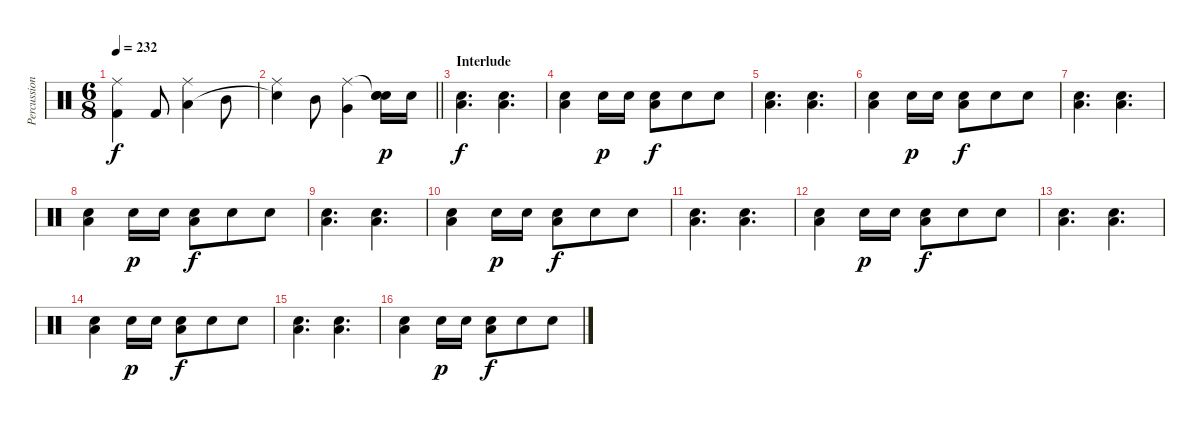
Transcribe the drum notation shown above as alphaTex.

\track ("Percussion" "Percussion") {instrument percussion}
\staff {score}
\articulation defaults
\ts (6 8)
\tempo 232
\clef neutral
\ks c
("Ride (middle)" "Kick (hit) 2").4{dy f} "Kick (hit) 2".8 ("Ride (middle)" "Low Tom (hit)").4 "Mid Tom (hit)".8 |
\barLineRight lightlight
("Ride (middle)" "Snare (hit)"{t}).4 "Mid Tom (hit)".8 ("Ride (middle)" "Very Low Tom (hit)").4 ("Snare (hit)"{t} "Snare (hit) 2" "Snare (hit)").16{dy p} "Snare (hit) 2".16 |
\section ("" "Interlude")
("Electric Snare (hit)" "Low Floor Tom (hit)").4{d dy f volume 11} ("Electric Snare (hit)" "Low Floor Tom (hit)").4{d} |
("Electric Snare (hit)" "Low Floor Tom (hit)").4 "Snare (hit) 2".16{dy p} "Snare (hit) 2".16 ("Electric Snare (hit)" "Low Floor Tom (hit)").8{dy f} "Electric Snare (hit)".8 "Electric Snare (hit)".8 |
("Electric Snare (hit)" "Low Floor Tom (hit)").4{d} ("Electric Snare (hit)" "Low Floor Tom (hit)").4{d} |
("Electric Snare (hit)" "Low Floor Tom (hit)").4 "Snare (hit) 2".16{dy p} "Snare (hit) 2".16 ("Electric Snare (hit)" "Low Floor Tom (hit)").8{dy f} "Electric Snare (hit)".8 "Electric Snare (hit)".8 |
("Electric Snare (hit)" "Low Floor Tom (hit)").4{d} ("Electric Snare (hit)" "Low Floor Tom (hit)").4{d} |
("Electric Snare (hit)" "Low Floor Tom (hit)").4 "Snare (hit) 2".16{dy p} "Snare (hit) 2".16 ("Electric Snare (hit)" "Low Floor Tom (hit)").8{dy f} "Electric Snare (hit)".8 "Electric Snare (hit)".8 |
("Electric Snare (hit)" "Low Floor Tom (hit)").4{d} ("Electric Snare (hit)" "Low Floor Tom (hit)").4{d} |
("Electric Snare (hit)" "Low Floor Tom (hit)").4 "Snare (hit) 2".16{dy p} "Snare (hit) 2".16 ("Electric Snare (hit)" "Low Floor Tom (hit)").8{dy f} "Electric Snare (hit)".8 "Electric Snare (hit)".8 |
("Electric Snare (hit)" "Low Floor Tom (hit)").4{d} ("Electric Snare (hit)" "Low Floor Tom (hit)").4{d} |
("Electric Snare (hit)" "Low Floor Tom (hit)").4 "Snare (hit) 2".16{dy p} "Snare (hit) 2".16 ("Electric Snare (hit)" "Low Floor Tom (hit)").8{dy f} "Electric Snare (hit)".8 "Electric Snare (hit)".8 |
("Electric Snare (hit)" "Low Floor Tom (hit)").4{d} ("Electric Snare (hit)" "Low Floor Tom (hit)").4{d} |
("Electric Snare (hit)" "Low Floor Tom (hit)").4 "Snare (hit) 2".16{dy p} "Snare (hit) 2".16 ("Electric Snare (hit)" "Low Floor Tom (hit)").8{dy f} "Electric Snare (hit)".8 "Electric Snare (hit)".8 |
("Electric Snare (hit)" "Low Floor Tom (hit)").4{d} ("Electric Snare (hit)" "Low Floor Tom (hit)").4{d} |
("Electric Snare (hit)" "Low Floor Tom (hit)").4 "Snare (hit) 2".16{dy p} "Snare (hit) 2".16 ("Electric Snare (hit)" "Low Floor Tom (hit)").8{dy f} "Electric Snare (hit)".8 "Electric Snare (hit)".8
